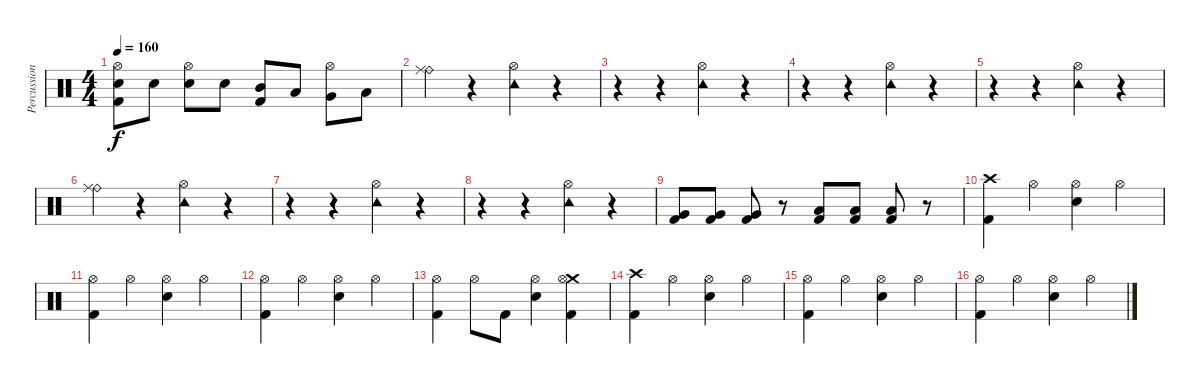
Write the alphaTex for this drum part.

\track ("Percussion" "Percussion") {instrument percussion}
\staff {score}
\articulation defaults
\ts (4 4)
\tempo 160
\clef neutral
\ks c
("Hi-Hat (open)" "Electric Snare (hit)" "Kick (hit) 2").8{dy f} "Electric Snare (hit)".8 ("Hi-Hat (open)" "Electric Snare (hit)").8 "Electric Snare (hit)".8 ("Mid Tom (hit)" "Kick (hit) 2").8 "Low Tom (hit)".8 ("Hi-Hat (open)" "Very Low Tom (hit)").8 "Low Floor Tom (hit)".8 |
("Ride (bell)" "Ride (middle)").4 r.4 ("Tambourine (hit)" "Hi-Hat (open)").4 r.4 |
r.4 r.4 ("Tambourine (hit)" "Hi-Hat (open)").4 r.4 |
r.4 r.4 ("Tambourine (hit)" "Hi-Hat (open)").4 r.4 |
r.4 r.4 ("Tambourine (hit)" "Hi-Hat (open)").4 r.4 |
("Ride (bell)" "Ride (middle)").4 r.4 ("Tambourine (hit)" "Hi-Hat (open)").4 r.4 |
r.4 r.4 ("Tambourine (hit)" "Hi-Hat (open)").4 r.4 |
r.4 r.4 ("Tambourine (hit)" "Hi-Hat (open)").4 r.4 |
("Very Low Tom (hit)" "Kick (hit) 2").8 ("Very Low Tom (hit)" "Kick (hit) 2").8 ("Very Low Tom (hit)" "Kick (hit) 2").8 r.8 ("Low Floor Tom (hit)" "Kick (hit) 2").8 ("Low Floor Tom (hit)" "Kick (hit) 2").8 ("Low Floor Tom (hit)" "Kick (hit) 2").8 r.8 |
("Crash high (hit)" "Kick (hit) 2").4 "Hi-Hat (open)".4 ("Hi-Hat (open)" "Electric Snare (hit)").4 "Hi-Hat (open)".4 |
("Hi-Hat (open)" "Kick (hit) 2").4 "Hi-Hat (open)".4 ("Hi-Hat (open)" "Electric Snare (hit)").4 "Hi-Hat (open)".4 |
("Hi-Hat (open)" "Kick (hit) 2").4 "Hi-Hat (open)".4 ("Hi-Hat (open)" "Electric Snare (hit)").4 "Hi-Hat (open)".4 |
("Hi-Hat (open)" "Kick (hit) 2").4 "Hi-Hat (open)".8 "Kick (hit) 2".8 ("Hi-Hat (open)" "Electric Snare (hit)").4 ("Crash medium (hit)" "Hi-Hat (open)" "Kick (hit) 2").4 |
("Crash high (hit)" "Kick (hit) 2").4 "Hi-Hat (open)".4 ("Hi-Hat (open)" "Electric Snare (hit)").4 "Hi-Hat (open)".4 |
("Hi-Hat (open)" "Kick (hit) 2").4 "Hi-Hat (open)".4 ("Hi-Hat (open)" "Electric Snare (hit)").4 "Hi-Hat (open)".4 |
("Hi-Hat (open)" "Kick (hit) 2").4 "Hi-Hat (open)".4 ("Hi-Hat (open)" "Electric Snare (hit)").4 "Hi-Hat (open)".4
